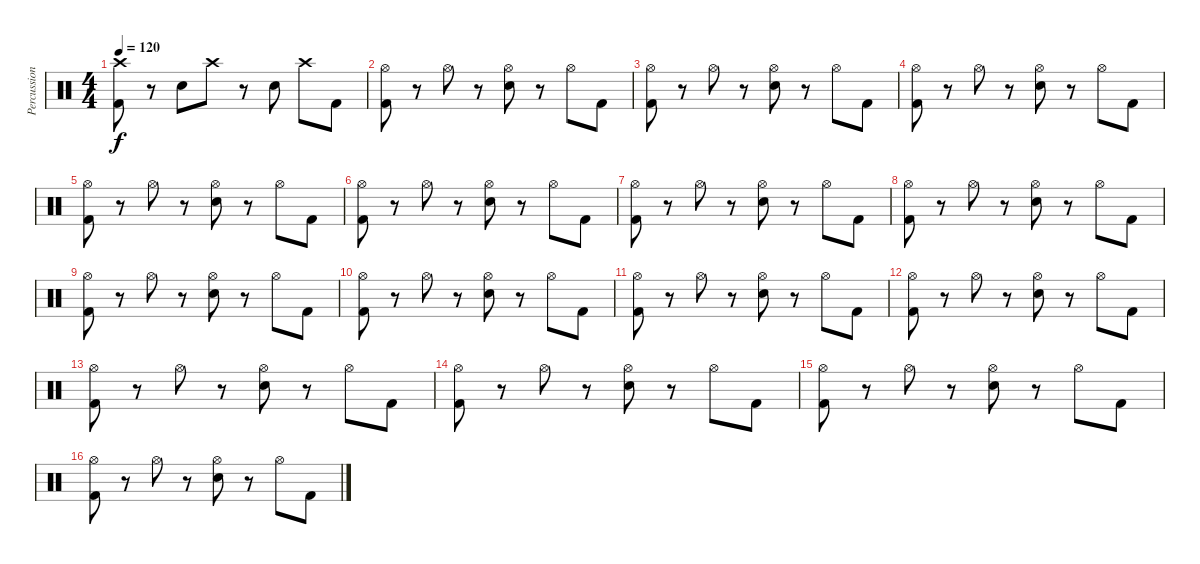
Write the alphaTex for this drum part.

\track ("Percussion" "Percussion") {instrument percussion}
\staff {score}
\articulation defaults
\ts (4 4)
\tempo 120
\clef neutral
\ks c
("Crash high (hit)" "Kick (hit) 2").8{dy f} r.8 "Snare (hit) 2".8 "Crash high (hit)".8 r.8 "Snare (hit) 2".8 "Crash high (hit)".8 "Kick (hit) 2".8 |
("Hi-Hat (open)" "Kick (hit) 2").8 r.8 "Hi-Hat (open)".8 r.8 ("Hi-Hat (open)" "Snare (hit) 2").8 r.8 "Hi-Hat (open)".8 "Kick (hit) 2".8 |
("Hi-Hat (open)" "Kick (hit) 2").8 r.8 "Hi-Hat (open)".8 r.8 ("Hi-Hat (open)" "Snare (hit) 2").8 r.8 "Hi-Hat (open)".8 "Kick (hit) 2".8 |
("Hi-Hat (open)" "Kick (hit) 2").8 r.8 "Hi-Hat (open)".8 r.8 ("Hi-Hat (open)" "Snare (hit) 2").8 r.8 "Hi-Hat (open)".8 "Kick (hit) 2".8 |
("Hi-Hat (open)" "Kick (hit) 2").8 r.8 "Hi-Hat (open)".8 r.8 ("Hi-Hat (open)" "Snare (hit) 2").8 r.8 "Hi-Hat (open)".8 "Kick (hit) 2".8 |
("Hi-Hat (open)" "Kick (hit) 2").8 r.8 "Hi-Hat (open)".8 r.8 ("Hi-Hat (open)" "Snare (hit) 2").8 r.8 "Hi-Hat (open)".8 "Kick (hit) 2".8 |
("Hi-Hat (open)" "Kick (hit) 2").8 r.8 "Hi-Hat (open)".8 r.8 ("Hi-Hat (open)" "Snare (hit) 2").8 r.8 "Hi-Hat (open)".8 "Kick (hit) 2".8 |
("Hi-Hat (open)" "Kick (hit) 2").8 r.8 "Hi-Hat (open)".8 r.8 ("Hi-Hat (open)" "Snare (hit) 2").8 r.8 "Hi-Hat (open)".8 "Kick (hit) 2".8 |
("Hi-Hat (open)" "Kick (hit) 2").8 r.8 "Hi-Hat (open)".8 r.8 ("Hi-Hat (open)" "Snare (hit) 2").8 r.8 "Hi-Hat (open)".8 "Kick (hit) 2".8 |
("Hi-Hat (open)" "Kick (hit) 2").8 r.8 "Hi-Hat (open)".8 r.8 ("Hi-Hat (open)" "Snare (hit) 2").8 r.8 "Hi-Hat (open)".8 "Kick (hit) 2".8 |
("Hi-Hat (open)" "Kick (hit) 2").8 r.8 "Hi-Hat (open)".8 r.8 ("Hi-Hat (open)" "Snare (hit) 2").8 r.8 "Hi-Hat (open)".8 "Kick (hit) 2".8 |
("Hi-Hat (open)" "Kick (hit) 2").8 r.8 "Hi-Hat (open)".8 r.8 ("Hi-Hat (open)" "Snare (hit) 2").8 r.8 "Hi-Hat (open)".8 "Kick (hit) 2".8 |
("Hi-Hat (open)" "Kick (hit) 2").8 r.8 "Hi-Hat (open)".8 r.8 ("Hi-Hat (open)" "Snare (hit) 2").8 r.8 "Hi-Hat (open)".8 "Kick (hit) 2".8 |
("Hi-Hat (open)" "Kick (hit) 2").8 r.8 "Hi-Hat (open)".8 r.8 ("Hi-Hat (open)" "Snare (hit) 2").8 r.8 "Hi-Hat (open)".8 "Kick (hit) 2".8 |
("Hi-Hat (open)" "Kick (hit) 2").8 r.8 "Hi-Hat (open)".8 r.8 ("Hi-Hat (open)" "Snare (hit) 2").8 r.8 "Hi-Hat (open)".8 "Kick (hit) 2".8 |
("Hi-Hat (open)" "Kick (hit) 2").8 r.8 "Hi-Hat (open)".8 r.8 ("Hi-Hat (open)" "Snare (hit) 2").8 r.8 "Hi-Hat (open)".8 "Kick (hit) 2".8
